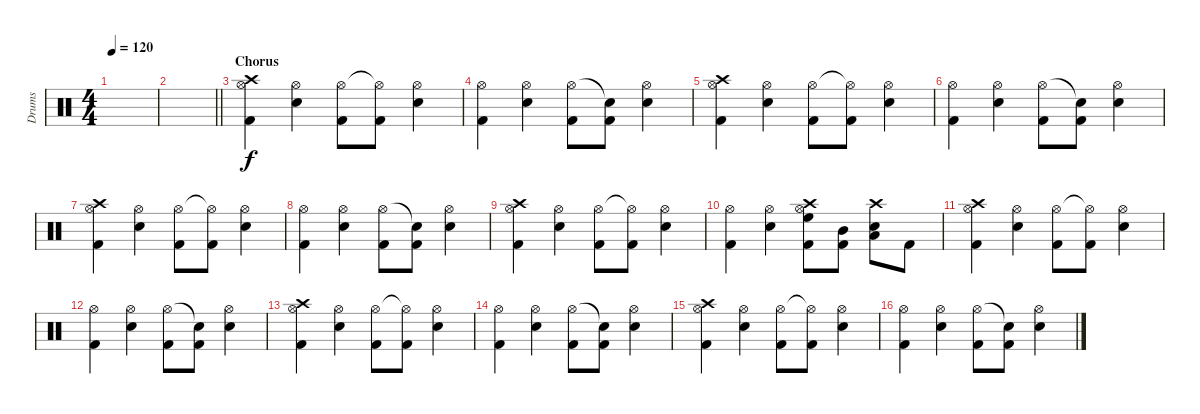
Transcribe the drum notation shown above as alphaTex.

\track ("Drums" "Drums") {instrument percussion}
\staff {score}
\articulation defaults
\ts (4 4)
\tempo 120
\clef neutral
\ks c
|
\barLineRight lightlight
|
\section ("" "Chorus")
("Crash high (hit)" "Hi-Hat (open)" "Kick (hit) 2").4 ("Hi-Hat (open)" "Snare (hit) 2").4 ("Hi-Hat (open)" "Kick (hit) 2").8 ("Hi-Hat (open)"{t} "Kick (hit) 2").8 ("Hi-Hat (open)" "Snare (hit) 2").4 |
("Hi-Hat (open)" "Kick (hit) 2").4 ("Hi-Hat (open)" "Snare (hit) 2").4 ("Hi-Hat (open)" "Kick (hit) 2").8 ("Snare (hit)"{t} "Kick (hit) 2").8 ("Hi-Hat (open)" "Snare (hit) 2").4 |
("Crash high (hit)" "Hi-Hat (open)" "Kick (hit) 2").4 ("Hi-Hat (open)" "Snare (hit) 2").4 ("Hi-Hat (open)" "Kick (hit) 2").8 ("Hi-Hat (open)"{t} "Kick (hit) 2").8 ("Hi-Hat (open)" "Snare (hit) 2").4 |
("Hi-Hat (open)" "Kick (hit) 2").4 ("Hi-Hat (open)" "Snare (hit) 2").4 ("Hi-Hat (open)" "Kick (hit) 2").8 ("Snare (hit)"{t} "Kick (hit) 2").8 ("Hi-Hat (open)" "Snare (hit) 2").4 |
("Crash high (hit)" "Hi-Hat (open)" "Kick (hit) 2").4 ("Hi-Hat (open)" "Snare (hit) 2").4 ("Hi-Hat (open)" "Kick (hit) 2").8 ("Hi-Hat (open)"{t} "Kick (hit) 2").8 ("Hi-Hat (open)" "Snare (hit) 2").4 |
("Hi-Hat (open)" "Kick (hit) 2").4 ("Hi-Hat (open)" "Snare (hit) 2").4 ("Hi-Hat (open)" "Kick (hit) 2").8 ("Snare (hit)"{t} "Kick (hit) 2").8 ("Hi-Hat (open)" "Snare (hit) 2").4 |
("Crash high (hit)" "Hi-Hat (open)" "Kick (hit) 2").4 ("Hi-Hat (open)" "Snare (hit) 2").4 ("Hi-Hat (open)" "Kick (hit) 2").8 ("Hi-Hat (open)"{t} "Kick (hit) 2").8 ("Hi-Hat (open)" "Snare (hit) 2").4 |
("Hi-Hat (open)" "Kick (hit) 2").4 ("Hi-Hat (open)" "Snare (hit) 2").4 ("Crash high (hit)" "Hi-Hat (open)" "High Floor Tom (hit)" "Kick (hit) 2").8 ("Mid Tom (hit)" "Kick (hit) 2").8 ("Crash high (hit)" "Low Floor Tom (hit)" "Snare (hit) 2").8 "Kick (hit) 2".8 |
("Crash high (hit)" "Hi-Hat (open)" "Kick (hit) 2").4 ("Hi-Hat (open)" "Snare (hit) 2").4 ("Hi-Hat (open)" "Kick (hit) 2").8 ("Hi-Hat (open)"{t} "Kick (hit) 2").8 ("Hi-Hat (open)" "Snare (hit) 2").4 |
("Hi-Hat (open)" "Kick (hit) 2").4 ("Hi-Hat (open)" "Snare (hit) 2").4 ("Hi-Hat (open)" "Kick (hit) 2").8 ("Snare (hit)"{t} "Kick (hit) 2").8 ("Hi-Hat (open)" "Snare (hit) 2").4 |
("Crash high (hit)" "Hi-Hat (open)" "Kick (hit) 2").4 ("Hi-Hat (open)" "Snare (hit) 2").4 ("Hi-Hat (open)" "Kick (hit) 2").8 ("Hi-Hat (open)"{t} "Kick (hit) 2").8 ("Hi-Hat (open)" "Snare (hit) 2").4 |
("Hi-Hat (open)" "Kick (hit) 2").4 ("Hi-Hat (open)" "Snare (hit) 2").4 ("Hi-Hat (open)" "Kick (hit) 2").8 ("Snare (hit)"{t} "Kick (hit) 2").8 ("Hi-Hat (open)" "Snare (hit) 2").4 |
("Crash high (hit)" "Hi-Hat (open)" "Kick (hit) 2").4 ("Hi-Hat (open)" "Snare (hit) 2").4 ("Hi-Hat (open)" "Kick (hit) 2").8 ("Hi-Hat (open)"{t} "Kick (hit) 2").8 ("Hi-Hat (open)" "Snare (hit) 2").4 |
("Hi-Hat (open)" "Kick (hit) 2").4 ("Hi-Hat (open)" "Snare (hit) 2").4 ("Hi-Hat (open)" "Kick (hit) 2").8 ("Snare (hit)"{t} "Kick (hit) 2").8 ("Hi-Hat (open)" "Snare (hit) 2").4
